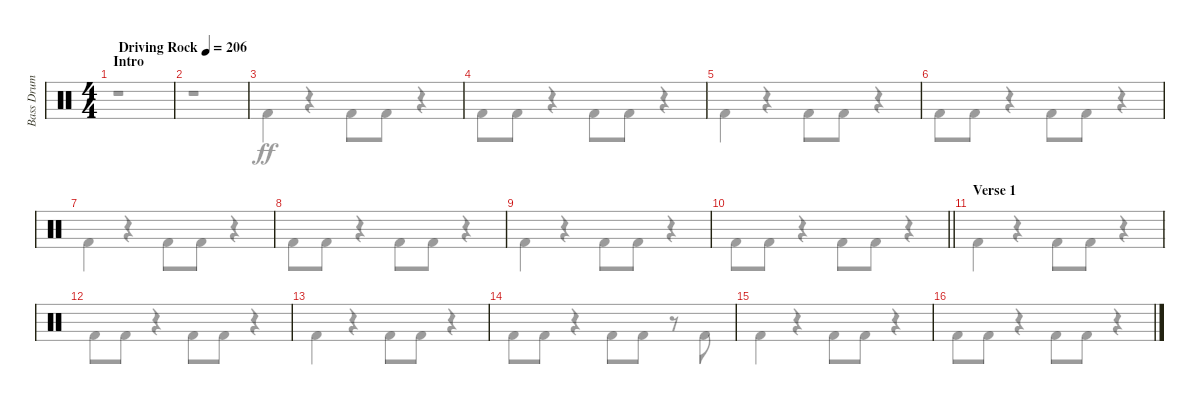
\track ("Bass Drum" "Bass Drum") {instrument percussion}
\staff {score}
\articulation defaults
\voice
\ts (4 4)
\section ("" "Intro")
\tempo (206 "Driving Rock")
\clef neutral
\ks c
|
|
|
|
|
|
|
|
|
\barLineRight lightlight
|
\section ("" "Verse 1")
|
|
|
|
|
\voice
\clef neutral
\ks c
r.1{dy ff} |
r.1 |
"Kick (hit) 2".4 r.4 "Kick (hit) 2".8 "Kick (hit) 2".8 r.4 |
"Kick (hit) 2".8 "Kick (hit) 2".8 r.4 "Kick (hit) 2".8 "Kick (hit) 2".8 r.4 |
"Kick (hit) 2".4 r.4 "Kick (hit) 2".8 "Kick (hit) 2".8 r.4 |
"Kick (hit) 2".8 "Kick (hit) 2".8 r.4 "Kick (hit) 2".8 "Kick (hit) 2".8 r.4 |
"Kick (hit) 2".4 r.4 "Kick (hit) 2".8 "Kick (hit) 2".8 r.4 |
"Kick (hit) 2".8 "Kick (hit) 2".8 r.4 "Kick (hit) 2".8 "Kick (hit) 2".8 r.4 |
"Kick (hit) 2".4 r.4 "Kick (hit) 2".8 "Kick (hit) 2".8 r.4 |
\barLineRight lightlight "Kick (hit) 2".8 "Kick (hit) 2".8
r.4 "Kick (hit) 2".8 "Kick (hit) 2".8 r.4 |
"Kick (hit) 2".4 r.4 "Kick (hit) 2".8 "Kick (hit) 2".8 r.4 |
"Kick (hit) 2".8 "Kick (hit) 2".8 r.4 "Kick (hit) 2".8 "Kick (hit) 2".8 r.4 |
"Kick (hit) 2".4 r.4 "Kick (hit) 2".8 "Kick (hit) 2".8 r.4 |
"Kick (hit) 2".8 "Kick (hit) 2".8 r.4 "Kick (hit) 2".8 "Kick (hit) 2".8 r.8 "Kick (hit) 2".8 |
"Kick (hit) 2".4 r.4 "Kick (hit) 2".8 "Kick (hit) 2".8 r.4 |
"Kick (hit) 2".8 "Kick (hit) 2".8 r.4 "Kick (hit) 2".8 "Kick (hit) 2".8 r.4
